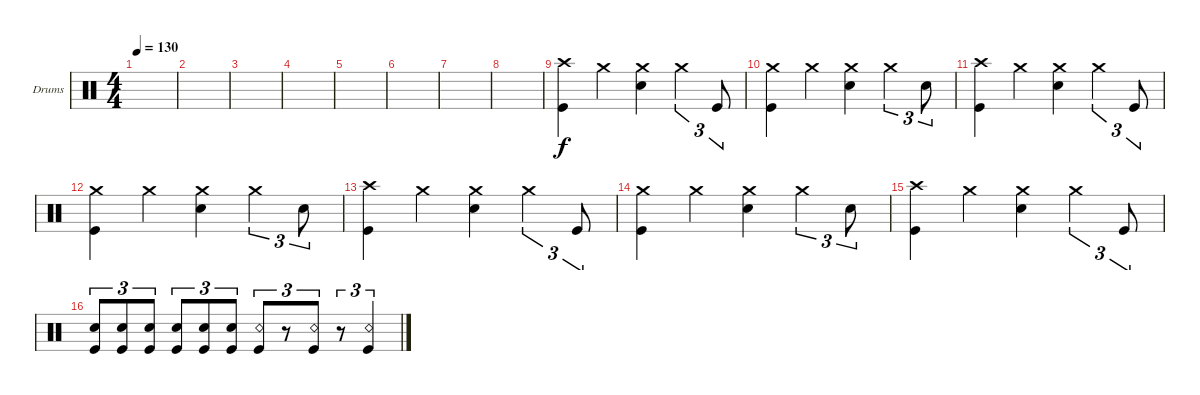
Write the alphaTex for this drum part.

\defaultSystemsLayout 4
\bracketExtendMode groupsimilarinstruments
\firstSystemTrackNameOrientation horizontal
\otherSystemsTrackNameOrientation horizontal
\track ("Drumkit" "Drums") {instrument percussion}
\staff {score}
\articulation defaults
\ts (4 4)
\tempo 130
\clef neutral
\ks c
|
|
|
|
|
|
|
|
("Kick (hit)" "Crash high (hit)").4 "Crash medium (hit)".4 ("Snare (hit) 2" "Crash medium (hit)").4 "Crash medium (hit)".4{tu (3 2)} "Kick (hit)".8{tu (3 2)} |
("Kick (hit)" "Crash medium (hit)").4 "Crash medium (hit)".4 ("Snare (hit) 2" "Crash medium (hit)").4 "Crash medium (hit)".4{tu (3 2)} "Snare (hit) 2".8{tu (3 2)} |
("Kick (hit)" "Crash high (hit)").4 "Crash medium (hit)".4 ("Snare (hit) 2" "Crash medium (hit)").4 "Crash medium (hit)".4{tu (3 2)} "Kick (hit)".8{tu (3 2)} |
("Kick (hit)" "Crash medium (hit)").4 "Crash medium (hit)".4 ("Snare (hit) 2" "Crash medium (hit)").4 "Crash medium (hit)".4{tu (3 2)} "Snare (hit) 2".8{tu (3 2)} |
("Kick (hit)" "Crash high (hit)").4 "Crash medium (hit)".4 ("Snare (hit) 2" "Crash medium (hit)").4 "Crash medium (hit)".4{tu (3 2)} "Kick (hit)".8{tu (3 2)} |
("Kick (hit)" "Crash medium (hit)").4 "Crash medium (hit)".4 ("Snare (hit) 2" "Crash medium (hit)").4 "Crash medium (hit)".4{tu (3 2)} "Snare (hit) 2".8{tu (3 2)} |
("Kick (hit)" "Crash high (hit)").4 "Crash medium (hit)".4 ("Snare (hit) 2" "Crash medium (hit)").4 "Crash medium (hit)".4{tu (3 2)} "Kick (hit)".8{tu (3 2)} |
("Kick (hit)" "Snare (hit) 2").8{tu (3 2)} ("Kick (hit)" "Snare (hit) 2").8{tu (3 2)} ("Kick (hit)" "Snare (hit) 2").8{tu (3 2)} ("Kick (hit)" "Snare (hit) 2").8{tu (3 2)} ("Kick (hit)" "Snare (hit) 2").8{tu (3 2)} ("Kick (hit)" "Snare (hit) 2").8{tu (3 2)} ("Kick (hit)" "Snare (rim shot)").8{tu (3 2)} r.8{tu (3 2)} ("Kick (hit)" "Snare (rim shot)").8{tu (3 2)} r.8{tu (3 2)} ("Kick (hit)" "Snare (rim shot)").4{tu (3 2)}
